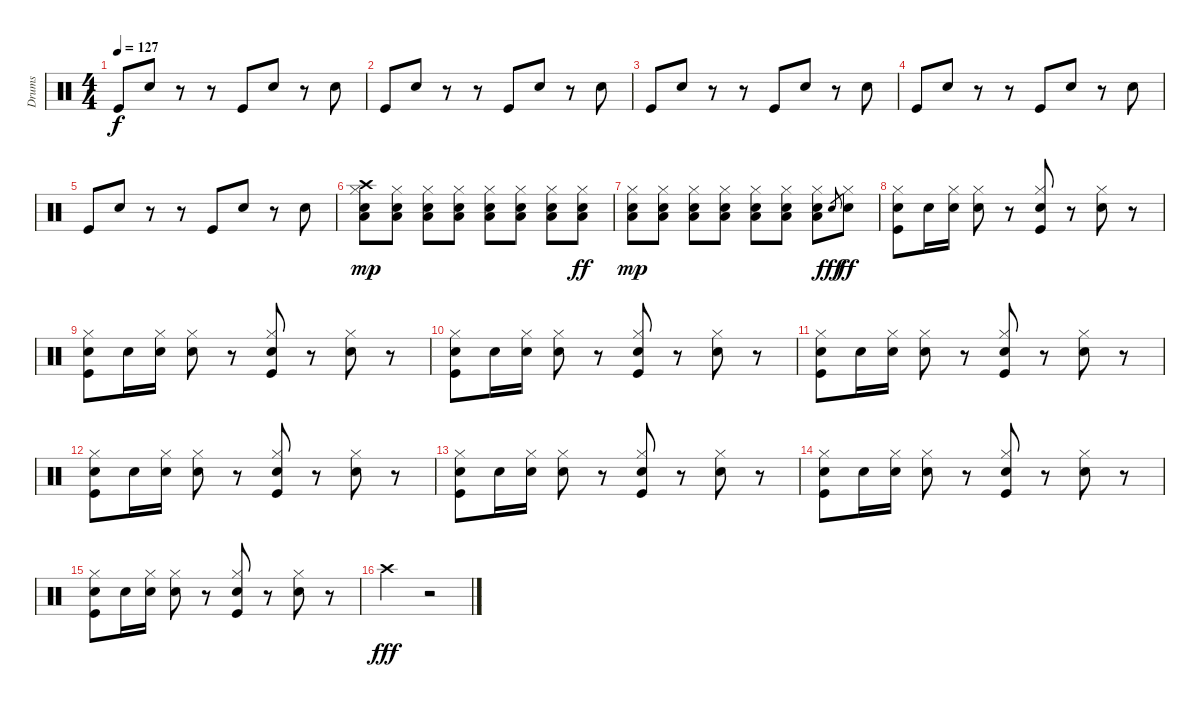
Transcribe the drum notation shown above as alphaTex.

\track ("Drums" "Drums") {instrument percussion}
\staff {score}
\articulation defaults
\ts (4 4)
\tempo 127
\clef neutral
\ks c "Kick (hit)".8{dy f} "Snare (hit) 2".8
r.8 r.8 "Kick (hit)".8 "Snare (hit) 2".8 r.8 "Snare (hit) 2".8 |
"Kick (hit)".8 "Snare (hit) 2".8 r.8 r.8 "Kick (hit)".8 "Snare (hit) 2".8 r.8 "Snare (hit) 2".8 |
"Kick (hit)".8 "Snare (hit) 2".8 r.8 r.8 "Kick (hit)".8 "Snare (hit) 2".8 r.8 "Snare (hit) 2".8 |
"Kick (hit)".8 "Snare (hit) 2".8 r.8 r.8 "Kick (hit)".8 "Snare (hit) 2".8 r.8 "Snare (hit) 2".8 |
"Kick (hit)".8 "Snare (hit) 2".8 r.8 r.8 "Kick (hit)".8 "Snare (hit) 2".8 r.8 "Snare (hit) 2".8 |
("Crash high (hit)" "Hi-Hat (closed)" "Electric Snare (hit)" "Low Floor Tom (hit)").8{dy mp} ("Hi-Hat (closed)" "Electric Snare (hit)" "Low Floor Tom (hit)").8 ("Hi-Hat (closed)" "Electric Snare (hit)" "Low Floor Tom (hit)").8 ("Hi-Hat (closed)" "Electric Snare (hit)" "Low Floor Tom (hit)").8 ("Hi-Hat (closed)" "Electric Snare (hit)" "Low Floor Tom (hit)").8 ("Hi-Hat (closed)" "Electric Snare (hit)" "Low Floor Tom (hit)").8 ("Hi-Hat (closed)" "Electric Snare (hit)" "Low Floor Tom (hit)").8 ("Hi-Hat (closed)" "Electric Snare (hit)" "Low Floor Tom (hit)").8{dy ff} |
("Hi-Hat (closed)" "Electric Snare (hit)" "Low Floor Tom (hit)").8{dy mp} ("Hi-Hat (closed)" "Electric Snare (hit)" "Low Floor Tom (hit)").8 ("Hi-Hat (closed)" "Electric Snare (hit)" "Low Floor Tom (hit)").8 ("Hi-Hat (closed)" "Electric Snare (hit)" "Low Floor Tom (hit)").8 ("Hi-Hat (closed)" "Electric Snare (hit)" "Low Floor Tom (hit)").8 ("Hi-Hat (closed)" "Electric Snare (hit)" "Low Floor Tom (hit)").8 ("Hi-Hat (closed)" "Electric Snare (hit)" "Low Floor Tom (hit)").8 "Electric Snare (hit)".8{gr dy fff} ("Hi-Hat (closed)" "Electric Snare (hit)").8{dy ff} |
("Hi-Hat (closed)" "Electric Snare (hit)" "Kick (hit)").8 "Electric Snare (hit)".16 ("Hi-Hat (closed)" "Electric Snare (hit)").16 ("Hi-Hat (closed)" "Electric Snare (hit)").8 r.8 ("Hi-Hat (closed)" "Electric Snare (hit)" "Kick (hit)").8 r.8 ("Hi-Hat (closed)" "Electric Snare (hit)").8 r.8 |
("Hi-Hat (closed)" "Electric Snare (hit)" "Kick (hit)").8 "Electric Snare (hit)".16 ("Hi-Hat (closed)" "Electric Snare (hit)").16 ("Hi-Hat (closed)" "Electric Snare (hit)").8 r.8 ("Hi-Hat (closed)" "Electric Snare (hit)" "Kick (hit)").8 r.8 ("Hi-Hat (closed)" "Electric Snare (hit)").8 r.8 |
("Hi-Hat (closed)" "Electric Snare (hit)" "Kick (hit)").8 "Electric Snare (hit)".16 ("Hi-Hat (closed)" "Electric Snare (hit)").16 ("Hi-Hat (closed)" "Electric Snare (hit)").8 r.8 ("Hi-Hat (closed)" "Electric Snare (hit)" "Kick (hit)").8 r.8 ("Hi-Hat (closed)" "Electric Snare (hit)").8 r.8 |
("Hi-Hat (closed)" "Electric Snare (hit)" "Kick (hit)").8 "Electric Snare (hit)".16 ("Hi-Hat (closed)" "Electric Snare (hit)").16 ("Hi-Hat (closed)" "Electric Snare (hit)").8 r.8 ("Hi-Hat (closed)" "Electric Snare (hit)" "Kick (hit)").8 r.8 ("Hi-Hat (closed)" "Electric Snare (hit)").8 r.8 |
("Hi-Hat (closed)" "Electric Snare (hit)" "Kick (hit)").8 "Electric Snare (hit)".16 ("Hi-Hat (closed)" "Electric Snare (hit)").16 ("Hi-Hat (closed)" "Electric Snare (hit)").8 r.8 ("Hi-Hat (closed)" "Electric Snare (hit)" "Kick (hit)").8 r.8 ("Hi-Hat (closed)" "Electric Snare (hit)").8 r.8 |
("Hi-Hat (closed)" "Electric Snare (hit)" "Kick (hit)").8 "Electric Snare (hit)".16 ("Hi-Hat (closed)" "Electric Snare (hit)").16 ("Hi-Hat (closed)" "Electric Snare (hit)").8 r.8 ("Hi-Hat (closed)" "Electric Snare (hit)" "Kick (hit)").8 r.8 ("Hi-Hat (closed)" "Electric Snare (hit)").8 r.8 |
("Hi-Hat (closed)" "Electric Snare (hit)" "Kick (hit)").8 "Electric Snare (hit)".16 ("Hi-Hat (closed)" "Electric Snare (hit)").16 ("Hi-Hat (closed)" "Electric Snare (hit)").8 r.8 ("Hi-Hat (closed)" "Electric Snare (hit)" "Kick (hit)").8 r.8 ("Hi-Hat (closed)" "Electric Snare (hit)").8 r.8 |
("Hi-Hat (closed)" "Electric Snare (hit)" "Kick (hit)").8 "Electric Snare (hit)".16 ("Hi-Hat (closed)" "Electric Snare (hit)").16 ("Hi-Hat (closed)" "Electric Snare (hit)").8 r.8 ("Hi-Hat (closed)" "Electric Snare (hit)" "Kick (hit)").8 r.8 ("Hi-Hat (closed)" "Electric Snare (hit)").8 r.8 |
"Crash high (hit)".2{dy fff} r.2
